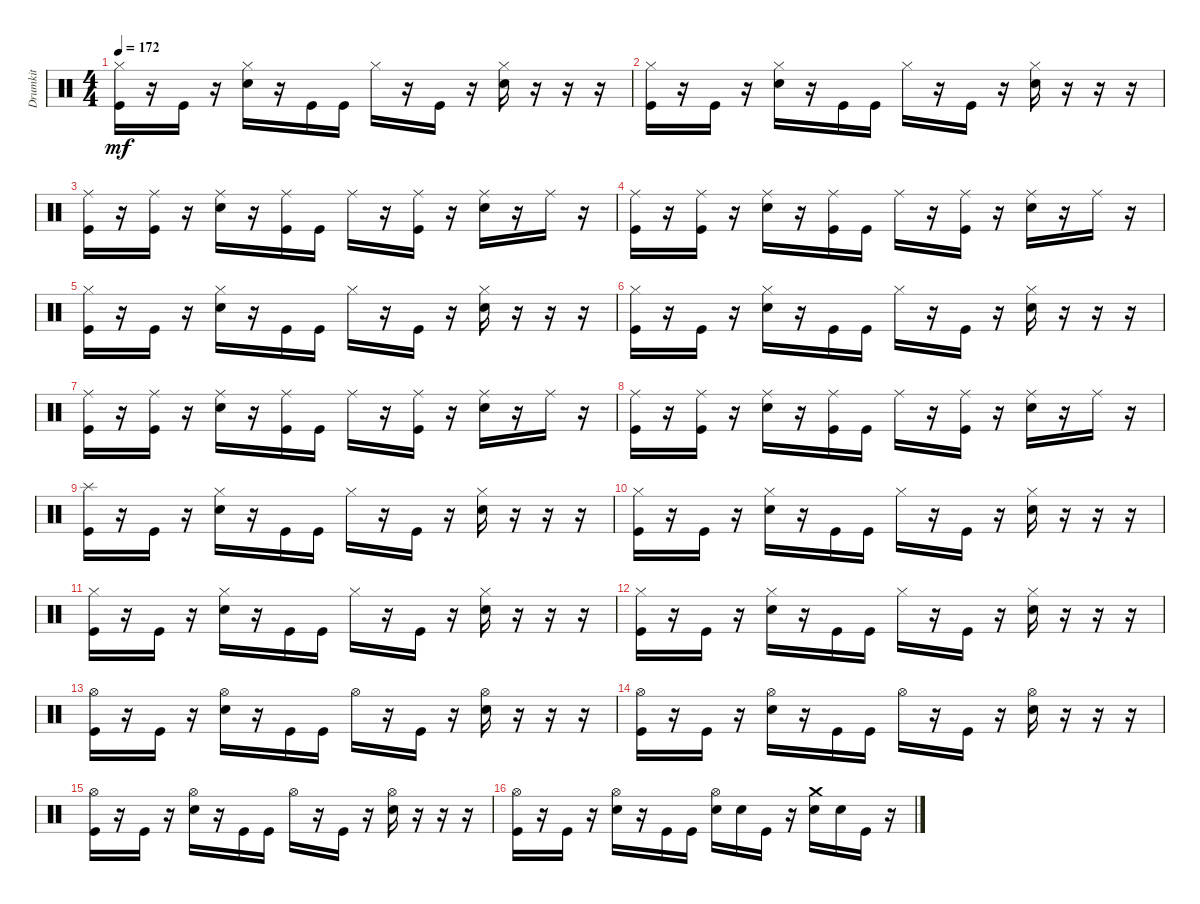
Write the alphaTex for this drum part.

\track ("Drumkit" "Drumkit") {instrument percussion}
\staff {score}
\articulation defaults
\ts (4 4)
\tempo 172
\clef neutral
\ks c
("Hi-Hat (closed)" "Kick (hit)").16{dy mf} r.16 "Kick (hit)".16 r.16 ("Hi-Hat (closed)" "Snare (hit) 2").16 r.16 "Kick (hit)".16 "Kick (hit)".16 "Hi-Hat (closed)".16 r.16 "Kick (hit)".16 r.16 ("Hi-Hat (closed)" "Snare (hit) 2").16 r.16 r.16 r.16 |
("Hi-Hat (closed)" "Kick (hit)").16 r.16 "Kick (hit)".16 r.16 ("Hi-Hat (closed)" "Snare (hit) 2").16 r.16 "Kick (hit)".16 "Kick (hit)".16 "Hi-Hat (closed)".16 r.16 "Kick (hit)".16 r.16 ("Hi-Hat (closed)" "Snare (hit) 2").16 r.16 r.16 r.16 |
("Kick (hit)" "Ride (middle)").16 r.16 ("Kick (hit)" "Ride (middle)").16 r.16 ("Snare (hit) 2" "Ride (middle)").16 r.16 ("Kick (hit)" "Ride (middle)").16 "Kick (hit)".16 "Ride (middle)".16 r.16 ("Kick (hit)" "Ride (middle)").16 r.16 ("Snare (hit) 2" "Ride (middle)").16 r.16 "Ride (middle)".16 r.16 |
("Kick (hit)" "Ride (middle)").16 r.16 ("Kick (hit)" "Ride (middle)").16 r.16 ("Snare (hit) 2" "Ride (middle)").16 r.16 ("Kick (hit)" "Ride (middle)").16 "Kick (hit)".16 "Ride (middle)".16 r.16 ("Kick (hit)" "Ride (middle)").16 r.16 ("Snare (hit) 2" "Ride (middle)").16 r.16 "Ride (middle)".16 r.16 |
("Hi-Hat (closed)" "Kick (hit)").16 r.16 "Kick (hit)".16 r.16 ("Hi-Hat (closed)" "Snare (hit) 2").16 r.16 "Kick (hit)".16 "Kick (hit)".16 "Hi-Hat (closed)".16 r.16 "Kick (hit)".16 r.16 ("Hi-Hat (closed)" "Snare (hit) 2").16 r.16 r.16 r.16 |
("Hi-Hat (closed)" "Kick (hit)").16 r.16 "Kick (hit)".16 r.16 ("Hi-Hat (closed)" "Snare (hit) 2").16 r.16 "Kick (hit)".16 "Kick (hit)".16 "Hi-Hat (closed)".16 r.16 "Kick (hit)".16 r.16 ("Hi-Hat (closed)" "Snare (hit) 2").16 r.16 r.16 r.16 |
("Kick (hit)" "Ride (middle)").16 r.16 ("Kick (hit)" "Ride (middle)").16 r.16 ("Snare (hit) 2" "Ride (middle)").16 r.16 ("Kick (hit)" "Ride (middle)").16 "Kick (hit)".16 "Ride (middle)".16 r.16 ("Kick (hit)" "Ride (middle)").16 r.16 ("Snare (hit) 2" "Ride (middle)").16 r.16 "Ride (middle)".16 r.16 |
("Kick (hit)" "Ride (middle)").16 r.16 ("Kick (hit)" "Ride (middle)").16 r.16 ("Snare (hit) 2" "Ride (middle)").16 r.16 ("Kick (hit)" "Ride (middle)").16 "Kick (hit)".16 "Ride (middle)".16 r.16 ("Kick (hit)" "Ride (middle)").16 r.16 ("Snare (hit) 2" "Ride (middle)").16 r.16 "Ride (middle)".16 r.16 |
("Kick (hit)" "Splash (hit)").16 r.16 "Kick (hit)".16 r.16 ("Hi-Hat (closed)" "Snare (hit) 2").16 r.16 "Kick (hit)".16 "Kick (hit)".16 "Hi-Hat (closed)".16 r.16 "Kick (hit)".16 r.16 ("Hi-Hat (closed)" "Snare (hit) 2").16 r.16 r.16 r.16 |
("Hi-Hat (closed)" "Kick (hit)").16 r.16 "Kick (hit)".16 r.16 ("Hi-Hat (closed)" "Snare (hit) 2").16 r.16 "Kick (hit)".16 "Kick (hit)".16 "Hi-Hat (closed)".16 r.16 "Kick (hit)".16 r.16 ("Hi-Hat (closed)" "Snare (hit) 2").16 r.16 r.16 r.16 |
("Hi-Hat (closed)" "Kick (hit)").16 r.16 "Kick (hit)".16 r.16 ("Hi-Hat (closed)" "Snare (hit) 2").16 r.16 "Kick (hit)".16 "Kick (hit)".16 "Hi-Hat (closed)".16 r.16 "Kick (hit)".16 r.16 ("Hi-Hat (closed)" "Snare (hit) 2").16 r.16 r.16 r.16 |
("Hi-Hat (closed)" "Kick (hit)").16 r.16 "Kick (hit)".16 r.16 ("Hi-Hat (closed)" "Snare (hit) 2").16 r.16 "Kick (hit)".16 "Kick (hit)".16 "Hi-Hat (closed)".16 r.16 "Kick (hit)".16 r.16 ("Hi-Hat (closed)" "Snare (hit) 2").16 r.16 r.16 r.16 |
("Hi-Hat (open)" "Kick (hit)").16 r.16 "Kick (hit)".16 r.16 ("Hi-Hat (open)" "Snare (hit) 2").16 r.16 "Kick (hit)".16 "Kick (hit)".16 "Hi-Hat (open)".16 r.16 "Kick (hit)".16 r.16 ("Hi-Hat (open)" "Snare (hit) 2").16 r.16 r.16 r.16 |
("Hi-Hat (open)" "Kick (hit)").16 r.16 "Kick (hit)".16 r.16 ("Hi-Hat (open)" "Snare (hit) 2").16 r.16 "Kick (hit)".16 "Kick (hit)".16 "Hi-Hat (open)".16 r.16 "Kick (hit)".16 r.16 ("Hi-Hat (open)" "Snare (hit) 2").16 r.16 r.16 r.16 |
("Hi-Hat (open)" "Kick (hit)").16 r.16 "Kick (hit)".16 r.16 ("Hi-Hat (open)" "Snare (hit) 2").16 r.16 "Kick (hit)".16 "Kick (hit)".16 "Hi-Hat (open)".16 r.16 "Kick (hit)".16 r.16 ("Hi-Hat (open)" "Snare (hit) 2").16 r.16 r.16 r.16 |
("Hi-Hat (open)" "Kick (hit)").16 r.16 "Kick (hit)".16 r.16 ("Hi-Hat (open)" "Snare (hit) 2").16 r.16 "Kick (hit)".16 "Kick (hit)".16 ("Hi-Hat (open)" "Snare (hit) 2").16 "Snare (hit) 2".16 "Kick (hit)".16 r.16 ("Snare (hit) 2" "Crash medium (hit)").16 "Snare (hit) 2".16 "Kick (hit)".16 r.16
